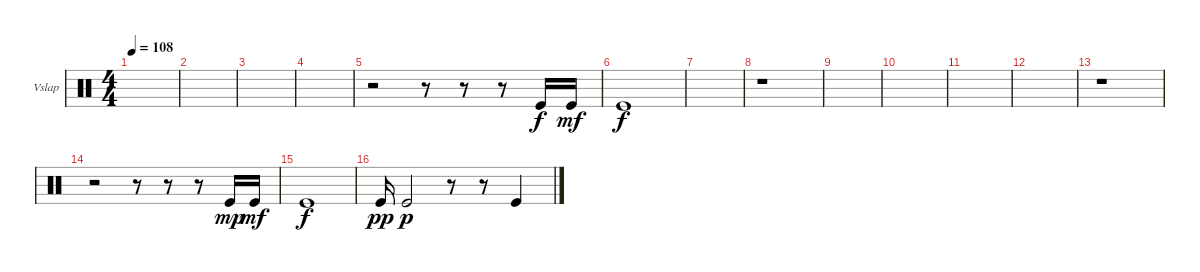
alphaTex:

\defaultSystemsLayout 4
\bracketExtendMode groupsimilarinstruments
\firstSystemTrackNameOrientation horizontal
\otherSystemsTrackNameOrientation horizontal
\track ("Vibraslap" "Vslap") {instrument percussion}
\staff {score}
\articulation defaults
\ts (4 4)
\tempo 108
\clef neutral
\scale
0.333333
\ks c
|
\scale
0.333333 |
\scale
0.333333 |
\scale
0.333333 |
\scale
0.333333 r.2 r.8 r.8 r.8 "Kick (hit)".16 "Kick (hit)".16{dy mf} |
\scale
0.333333 "Kick (hit)".1{dy f} |
\scale
0.333333 |
\scale
0.333333 r.1 |
\scale
0.333333 |
\scale
0.333333 |
\scale
0.333333 |
\scale
0.333333 |
\scale
0.333333 r.1 |
\scale
0.333333 r.2 r.8 r.8 r.8 "Kick (hit)".16{dy mp} "Kick (hit)".16{dy mf} |
\scale
0.333333 "Kick (hit)".1{dy f} |
\scale
0.333333 "Kick (hit)".16{dy pp} "Kick (hit)".2{dy p} r.8 r.8 "Kick (hit)".4
